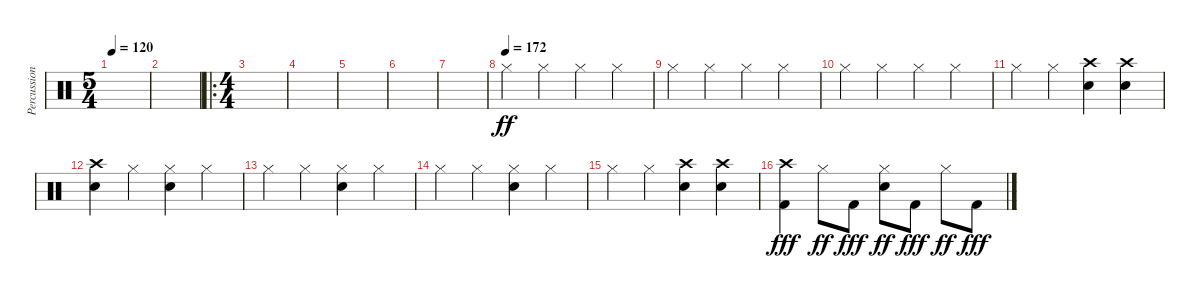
\track ("Percussion" "Percussion") {instrument percussion}
\staff {score}
\articulation defaults
\ts (5 4)
\tempo 120
\clef neutral
\ks c
|
|
\ro
\ts (4 4)
|
|
|
|
|
\tempo (172)
"Hi-Hat (closed)".4{dy ff} "Hi-Hat (closed)".4 "Hi-Hat (closed)".4 "Hi-Hat (closed)".4 |
"Hi-Hat (closed)".4 "Hi-Hat (closed)".4 "Hi-Hat (closed)".4 "Hi-Hat (closed)".4 |
"Hi-Hat (closed)".4 "Hi-Hat (closed)".4 "Hi-Hat (closed)".4 "Hi-Hat (closed)".4 |
"Hi-Hat (closed)".4 "Hi-Hat (closed)".4 ("Crash high (hit)" "Snare (hit) 2").4 ("Crash high (hit)" "Snare (hit) 2").4 |
("Crash high (hit)" "Snare (hit) 2").4 "Hi-Hat (closed)".4 ("Hi-Hat (closed)" "Snare (hit) 2").4 "Hi-Hat (closed)".4 |
"Hi-Hat (closed)".4 "Hi-Hat (closed)".4 ("Hi-Hat (closed)" "Snare (hit) 2").4 "Hi-Hat (closed)".4 |
"Hi-Hat (closed)".4 "Hi-Hat (closed)".4 ("Hi-Hat (closed)" "Snare (hit) 2").4 "Hi-Hat (closed)".4 |
"Hi-Hat (closed)".4 "Hi-Hat (closed)".4 ("Crash high (hit)" "Snare (hit) 2").4 ("Crash high (hit)" "Snare (hit) 2").4 |
("Crash high (hit)" "Kick (hit) 2").4{dy fff} "Hi-Hat (closed)".8{dy ff} "Kick (hit) 2".8{dy fff} ("Hi-Hat (closed)" "Snare (hit) 2").8{dy ff} "Kick (hit) 2".8{dy fff} "Hi-Hat (closed)".8{dy ff} "Kick (hit) 2".8{dy fff}
